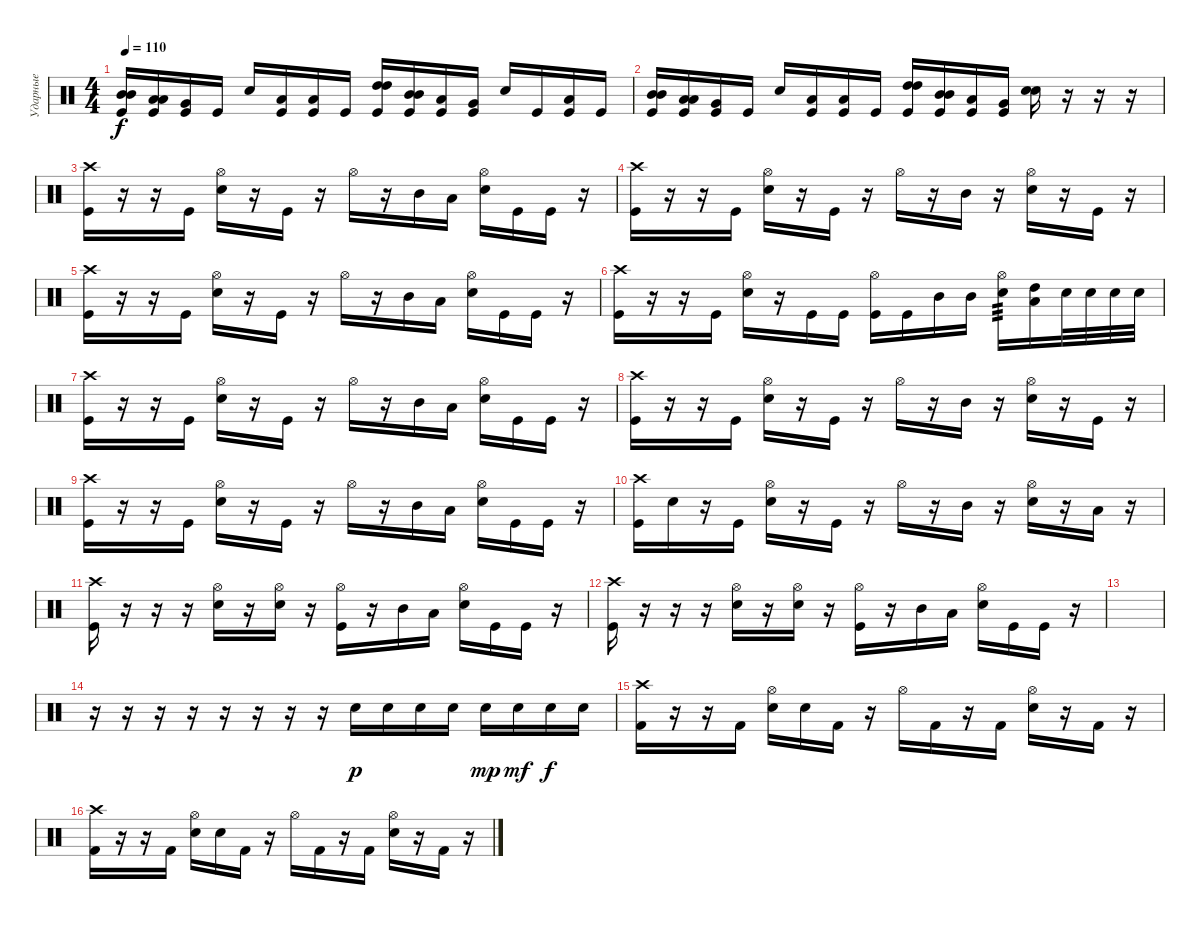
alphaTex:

\track ("Ударные" "Ударные") {instrument percussion}
\staff {score}
\articulation defaults
\ts (4 4)
\tempo 110
\clef neutral
\ks c
("Mid Tom (hit)" "Mid Tom (hit)" "Kick (hit)").16{dy f} ("Low Tom (hit)" "Low Tom (hit)" "Kick (hit)").16 ("Very Low Tom (hit)" "Kick (hit)").16 "Kick (hit)".16 "Electric Snare (hit)".16 ("Low Floor Tom (hit)" "Kick (hit)").16 ("Low Floor Tom (hit)" "Kick (hit)").16 "Kick (hit)".16 ("High Tom (hit)" "High Tom (hit)" "Kick (hit)").16 ("Mid Tom (hit)" "Mid Tom (hit)" "Kick (hit)").16 ("Low Tom (hit)" "Kick (hit)").16 ("Very Low Tom (hit)" "Kick (hit)").16 "Electric Snare (hit)".16 "Kick (hit)".16 ("Low Floor Tom (hit)" "Kick (hit)").16 "Kick (hit)".16 |
("Mid Tom (hit)" "Mid Tom (hit)" "Kick (hit)").16 ("Low Tom (hit)" "Low Tom (hit)" "Kick (hit)").16 ("Very Low Tom (hit)" "Kick (hit)").16 "Kick (hit)".16 "Electric Snare (hit)".16 ("Low Floor Tom (hit)" "Kick (hit)").16 ("Low Floor Tom (hit)" "Kick (hit)").16 "Kick (hit)".16 ("High Tom (hit)" "High Tom (hit)" "Kick (hit)").16 ("Mid Tom (hit)" "Mid Tom (hit)" "Kick (hit)").16 ("Low Tom (hit)" "Kick (hit)").16 ("Very Low Tom (hit)" "Kick (hit)").16 ("Electric Snare (hit)" "Electric Snare (hit)").16 r.16 r.16 r.16 |
("Crash high (hit)" "Kick (hit)").16 r.16 r.16 "Kick (hit)".16 ("Hi-Hat (open)" "Electric Snare (hit)").16 r.16 "Kick (hit)".16 r.16 "Hi-Hat (open)".16 r.16 "Mid Tom (hit)".16 "Low Tom (hit)".16 ("Hi-Hat (open)" "Electric Snare (hit)").16 "Kick (hit)".16 "Kick (hit)".16 r.16 |
("Crash high (hit)" "Kick (hit)").16 r.16 r.16 "Kick (hit)".16 ("Hi-Hat (open)" "Electric Snare (hit)").16 r.16 "Kick (hit)".16 r.16 "Hi-Hat (open)".16 r.16 "Mid Tom (hit)".16 r.16 ("Hi-Hat (open)" "Electric Snare (hit)").16 r.16 "Kick (hit)".16 r.16 |
("Crash high (hit)" "Kick (hit)").16 r.16 r.16 "Kick (hit)".16 ("Hi-Hat (open)" "Electric Snare (hit)").16 r.16 "Kick (hit)".16 r.16 "Hi-Hat (open)".16 r.16 "Mid Tom (hit)".16 "Low Tom (hit)".16 ("Hi-Hat (open)" "Electric Snare (hit)").16 "Kick (hit)".16 "Kick (hit)".16 r.16 |
("Crash high (hit)" "Kick (hit)").16 r.16 r.16 "Kick (hit)".16 ("Hi-Hat (open)" "Electric Snare (hit)").16 r.16 "Kick (hit)".16 "Kick (hit)".16 ("Hi-Hat (open)" "Kick (hit)").16 "Kick (hit)".16 "Mid Tom (hit)".16 "Mid Tom (hit)".16 ("Hi-Hat (open)" "Electric Snare (hit)").16{tp 3} ("High Tom (hit)" "Low Tom (hit)").16 "Electric Snare (hit)".32 "Electric Snare (hit)".32 "Electric Snare (hit)".32 "Electric Snare (hit)".32 |
("Crash high (hit)" "Kick (hit)").16 r.16 r.16 "Kick (hit)".16 ("Hi-Hat (open)" "Electric Snare (hit)").16 r.16 "Kick (hit)".16 r.16 "Hi-Hat (open)".16 r.16 "Mid Tom (hit)".16 "Low Tom (hit)".16 ("Hi-Hat (open)" "Electric Snare (hit)").16 "Kick (hit)".16 "Kick (hit)".16 r.16 |
("Crash high (hit)" "Kick (hit)").16 r.16 r.16 "Kick (hit)".16 ("Hi-Hat (open)" "Electric Snare (hit)").16 r.16 "Kick (hit)".16 r.16 "Hi-Hat (open)".16 r.16 "Mid Tom (hit)".16 r.16 ("Hi-Hat (open)" "Electric Snare (hit)").16 r.16 "Kick (hit)".16 r.16 |
("Crash high (hit)" "Kick (hit)").16 r.16 r.16 "Kick (hit)".16 ("Hi-Hat (open)" "Electric Snare (hit)").16 r.16 "Kick (hit)".16 r.16 "Hi-Hat (open)".16 r.16 "Mid Tom (hit)".16 "Low Tom (hit)".16 ("Hi-Hat (open)" "Electric Snare (hit)").16 "Kick (hit)".16 "Kick (hit)".16 r.16 |
("Crash high (hit)" "Kick (hit)").16 "Electric Snare (hit)".16 r.16 "Kick (hit)".16 ("Hi-Hat (open)" "Electric Snare (hit)").16 r.16 "Kick (hit)".16 r.16 "Hi-Hat (open)".16 r.16 "Mid Tom (hit)".16 r.16 ("Hi-Hat (open)" "Electric Snare (hit)").16 r.16 "Low Tom (hit)".16 r.16 |
("Crash high (hit)" "Kick (hit)").16 r.16 r.16 r.16 ("Hi-Hat (open)" "Electric Snare (hit)").16 r.16 ("Hi-Hat (open)" "Electric Snare (hit)").16 r.16 ("Hi-Hat (open)" "Kick (hit)").16 r.16 "Mid Tom (hit)".16 "Low Tom (hit)".16 ("Hi-Hat (open)" "Electric Snare (hit)").16 "Kick (hit)".16 "Kick (hit)".16 r.16 |
("Crash high (hit)" "Kick (hit)").16 r.16 r.16 r.16 ("Hi-Hat (open)" "Electric Snare (hit)").16 r.16 ("Hi-Hat (open)" "Electric Snare (hit)").16 r.16 ("Hi-Hat (open)" "Kick (hit)").16 r.16 "Mid Tom (hit)".16 "Low Tom (hit)".16 ("Hi-Hat (open)" "Electric Snare (hit)").16 "Kick (hit)".16 "Kick (hit)".16 r.16 |
|
r.16 r.16 r.16 r.16 r.16 r.16 r.16 r.16 "Electric Snare (hit)".16{dy p} "Electric Snare (hit)".16 "Electric Snare (hit)".16 "Electric Snare (hit)".16 "Electric Snare (hit)".16{dy mp} "Electric Snare (hit)".16{dy mf} "Electric Snare (hit)".16{dy f} "Electric Snare (hit)".16 |
("Crash high (hit)" "Kick (hit) 2").16 r.16 r.16 "Kick (hit) 2".16 ("Hi-Hat (open)" "Electric Snare (hit)").16 "Electric Snare (hit)".16 "Kick (hit) 2".16 r.16 "Hi-Hat (open)".16 "Kick (hit) 2".16 r.16 "Kick (hit) 2".16 ("Hi-Hat (open)" "Electric Snare (hit)").16 r.16 "Kick (hit) 2".16 r.16 |
("Crash high (hit)" "Kick (hit) 2").16 r.16 r.16 "Kick (hit) 2".16 ("Hi-Hat (open)" "Electric Snare (hit)").16 "Electric Snare (hit)".16 "Kick (hit) 2".16 r.16 "Hi-Hat (open)".16 "Kick (hit) 2".16 r.16 "Kick (hit) 2".16 ("Hi-Hat (open)" "Electric Snare (hit)").16 r.16 "Kick (hit) 2".16 r.16
